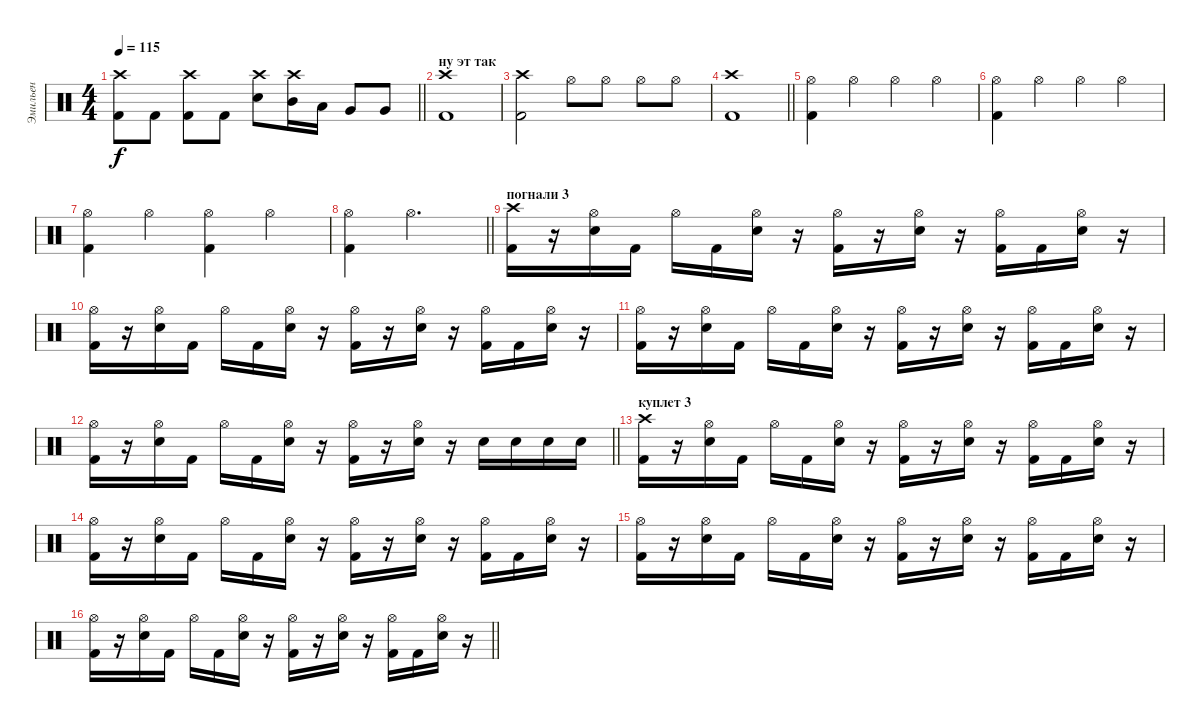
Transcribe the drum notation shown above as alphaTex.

\track ("Эмильен" "Эмильен") {instrument percussion}
\staff {score}
\articulation defaults
\ts (4 4)
\tempo 115
\clef neutral
\barLineRight lightlight
\ks c
("Crash high (hit)" "Kick (hit) 2").8{dy f} "Kick (hit) 2".8 ("Crash high (hit)" "Kick (hit) 2").8 "Kick (hit) 2".8 ("Crash high (hit)" "Snare (hit) 2").8 ("Crash high (hit)" "Mid Tom (hit)").16 "Low Tom (hit)".16 "Very Low Tom (hit)".8 "Very Low Tom (hit)".8 |
\section ("" "ну эт так")
("Crash high (hit)" "Kick (hit) 2").1 |
("Crash high (hit)" "Kick (hit) 2").2 "Hi-Hat (open)".8 "Hi-Hat (open)".8 "Hi-Hat (open)".8 "Hi-Hat (open)".8 |
\barLineRight lightlight
("Crash high (hit)" "Kick (hit) 2").1 |
\section ("" "")
("Hi-Hat (open)" "Kick (hit) 2").4 "Hi-Hat (open)".4 "Hi-Hat (open)".4 "Hi-Hat (open)".4 |
("Hi-Hat (open)" "Kick (hit) 2").4 "Hi-Hat (open)".4 "Hi-Hat (open)".4 "Hi-Hat (open)".4 |
("Hi-Hat (open)" "Kick (hit) 2").4 "Hi-Hat (open)".4 ("Hi-Hat (open)" "Kick (hit) 2").4 "Hi-Hat (open)".4 |
\barLineRight lightlight
("Hi-Hat (open)" "Kick (hit) 2").4 "Hi-Hat (open)".2{d} |
\section ("" "погнали 3")
("Crash high (hit)" "Kick (hit) 2").16 r.16 ("Hi-Hat (open)" "Snare (hit) 2").16 "Kick (hit) 2".16 "Hi-Hat (open)".16 "Kick (hit) 2".16 ("Hi-Hat (open)" "Snare (hit) 2").16 r.16 ("Hi-Hat (open)" "Kick (hit) 2").16 r.16 ("Hi-Hat (open)" "Snare (hit) 2").16 r.16 ("Hi-Hat (open)" "Kick (hit) 2").16 "Kick (hit) 2".16 ("Hi-Hat (open)" "Snare (hit) 2").16 r.16 |
("Hi-Hat (open)" "Kick (hit) 2").16 r.16 ("Hi-Hat (open)" "Snare (hit) 2").16 "Kick (hit) 2".16 "Hi-Hat (open)".16 "Kick (hit) 2".16 ("Hi-Hat (open)" "Snare (hit) 2").16 r.16 ("Hi-Hat (open)" "Kick (hit) 2").16 r.16 ("Hi-Hat (open)" "Snare (hit) 2").16 r.16 ("Hi-Hat (open)" "Kick (hit) 2").16 "Kick (hit) 2".16 ("Hi-Hat (open)" "Snare (hit) 2").16 r.16 |
("Hi-Hat (open)" "Kick (hit) 2").16 r.16 ("Hi-Hat (open)" "Snare (hit) 2").16 "Kick (hit) 2".16 "Hi-Hat (open)".16 "Kick (hit) 2".16 ("Hi-Hat (open)" "Snare (hit) 2").16 r.16 ("Hi-Hat (open)" "Kick (hit) 2").16 r.16 ("Hi-Hat (open)" "Snare (hit) 2").16 r.16 ("Hi-Hat (open)" "Kick (hit) 2").16 "Kick (hit) 2".16 ("Hi-Hat (open)" "Snare (hit) 2").16 r.16 |
\barLineRight lightlight
("Hi-Hat (open)" "Kick (hit) 2").16 r.16 ("Hi-Hat (open)" "Snare (hit) 2").16 "Kick (hit) 2".16 "Hi-Hat (open)".16 "Kick (hit) 2".16 ("Hi-Hat (open)" "Snare (hit) 2").16 r.16 ("Hi-Hat (open)" "Kick (hit) 2").16 r.16 ("Hi-Hat (open)" "Snare (hit) 2").16 r.16 "Snare (hit) 2".16 "Snare (hit) 2".16 "Snare (hit) 2".16 "Snare (hit) 2".16 |
\section ("" "куплет 3")
("Crash high (hit)" "Kick (hit) 2").16 r.16 ("Hi-Hat (open)" "Snare (hit) 2").16 "Kick (hit) 2".16 "Hi-Hat (open)".16 "Kick (hit) 2".16 ("Hi-Hat (open)" "Snare (hit) 2").16 r.16 ("Hi-Hat (open)" "Kick (hit) 2").16 r.16 ("Hi-Hat (open)" "Snare (hit) 2").16 r.16 ("Hi-Hat (open)" "Kick (hit) 2").16 "Kick (hit) 2".16 ("Hi-Hat (open)" "Snare (hit) 2").16 r.16 |
("Hi-Hat (open)" "Kick (hit) 2").16 r.16 ("Hi-Hat (open)" "Snare (hit) 2").16 "Kick (hit) 2".16 "Hi-Hat (open)".16 "Kick (hit) 2".16 ("Hi-Hat (open)" "Snare (hit) 2").16 r.16 ("Hi-Hat (open)" "Kick (hit) 2").16 r.16 ("Hi-Hat (open)" "Snare (hit) 2").16 r.16 ("Hi-Hat (open)" "Kick (hit) 2").16 "Kick (hit) 2".16 ("Hi-Hat (open)" "Snare (hit) 2").16 r.16 |
("Hi-Hat (open)" "Kick (hit) 2").16 r.16 ("Hi-Hat (open)" "Snare (hit) 2").16 "Kick (hit) 2".16 "Hi-Hat (open)".16 "Kick (hit) 2".16 ("Hi-Hat (open)" "Snare (hit) 2").16 r.16 ("Hi-Hat (open)" "Kick (hit) 2").16 r.16 ("Hi-Hat (open)" "Snare (hit) 2").16 r.16 ("Hi-Hat (open)" "Kick (hit) 2").16 "Kick (hit) 2".16 ("Hi-Hat (open)" "Snare (hit) 2").16 r.16 |
\barLineRight lightlight
("Hi-Hat (open)" "Kick (hit) 2").16 r.16 ("Hi-Hat (open)" "Snare (hit) 2").16 "Kick (hit) 2".16 "Hi-Hat (open)".16 "Kick (hit) 2".16 ("Hi-Hat (open)" "Snare (hit) 2").16 r.16 ("Hi-Hat (open)" "Kick (hit) 2").16 r.16 ("Hi-Hat (open)" "Snare (hit) 2").16 r.16 ("Hi-Hat (open)" "Kick (hit) 2").16 "Kick (hit) 2".16 ("Hi-Hat (open)" "Snare (hit) 2").16 r.16
